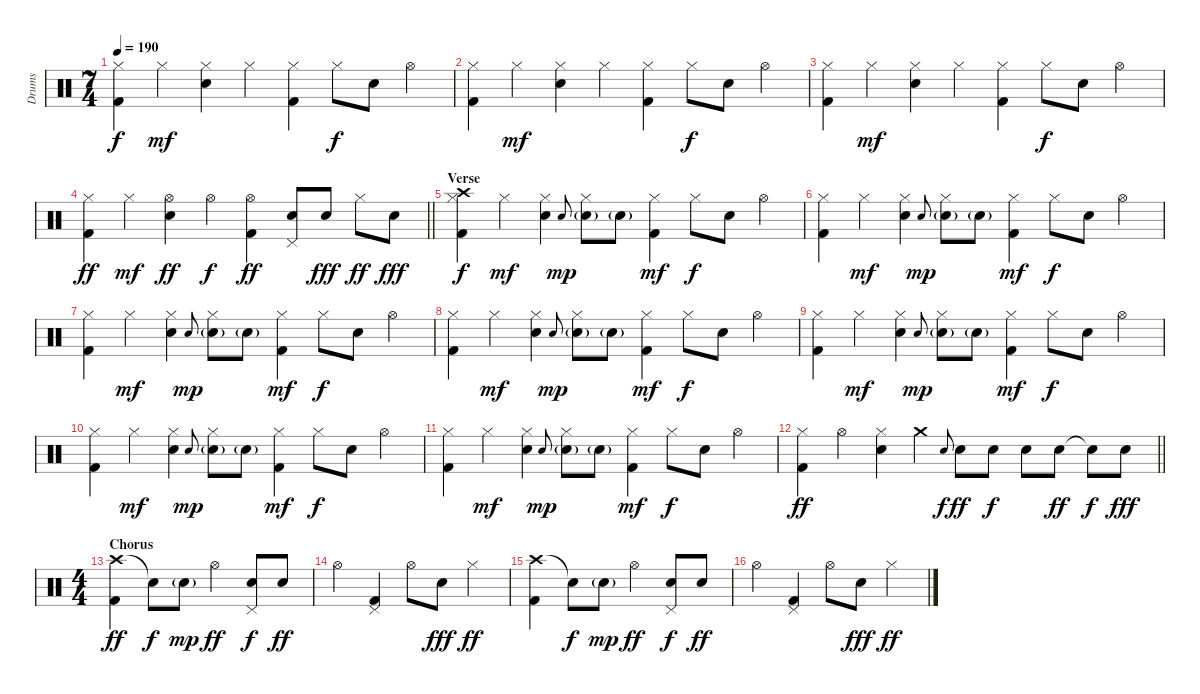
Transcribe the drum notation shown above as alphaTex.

\track ("Drums" "Drums") {instrument percussion}
\staff {score}
\articulation defaults
\ts (7 4)
\tempo 190
\clef neutral
\ks c
("Hi-Hat (closed)" "Kick (hit) 2").4{dy f} "Hi-Hat (closed)".4{dy mf} ("Hi-Hat (closed)" "Electric Snare (hit)").4 "Hi-Hat (closed)".4 ("Hi-Hat (closed)" "Kick (hit) 2").4 "Hi-Hat (closed)".8{dy f} "Electric Snare (hit)".8 "Hi-Hat (open)".4 |
("Hi-Hat (closed)" "Kick (hit) 2").4 "Hi-Hat (closed)".4{dy mf} ("Hi-Hat (closed)" "Electric Snare (hit)").4 "Hi-Hat (closed)".4 ("Hi-Hat (closed)" "Kick (hit) 2").4 "Hi-Hat (closed)".8{dy f} "Electric Snare (hit)".8 "Hi-Hat (open)".4 |
("Hi-Hat (closed)" "Kick (hit) 2").4 "Hi-Hat (closed)".4{dy mf} ("Hi-Hat (closed)" "Electric Snare (hit)").4 "Hi-Hat (closed)".4 ("Hi-Hat (closed)" "Kick (hit) 2").4 "Hi-Hat (closed)".8{dy f} "Electric Snare (hit)".8 "Hi-Hat (open)".4 |
\barLineRight lightlight
("Hi-Hat (closed)" "Kick (hit) 2").4{dy ff} "Hi-Hat (closed)".4{dy mf} ("Hi-Hat (open)" "Electric Snare (hit)").4{dy ff} "Hi-Hat (open)".4{dy f} ("Hi-Hat (open)" "Kick (hit) 2").4{dy ff} ("Pedal Hi-Hat (hit)" "Electric Snare (hit)").8 "Electric Snare (hit)".8{dy fff} "Hi-Hat (closed)".8{dy ff} "Electric Snare (hit)".8{dy fff} |
\section ("" "Verse")
("Crash high (hit)" "Hi-Hat (closed)" "Kick (hit) 2").4{dy f} "Hi-Hat (closed)".4{dy mf} ("Hi-Hat (closed)" "Electric Snare (hit)").4 "Electric Snare (hit)".8{gr onbeat dy mp} ("Hi-Hat (closed)" "Electric Snare (hit)"{g}).8 "Electric Snare (hit)"{g}.8 ("Hi-Hat (closed)" "Kick (hit) 2").4{dy mf} "Hi-Hat (closed)".8{dy f} "Electric Snare (hit)".8 "Hi-Hat (open)".4 |
("Hi-Hat (closed)" "Kick (hit) 2").4 "Hi-Hat (closed)".4{dy mf} ("Hi-Hat (closed)" "Electric Snare (hit)").4 "Electric Snare (hit)".8{gr onbeat dy mp} ("Hi-Hat (closed)" "Electric Snare (hit)"{g}).8 "Electric Snare (hit)"{g}.8 ("Hi-Hat (closed)" "Kick (hit) 2").4{dy mf} "Hi-Hat (closed)".8{dy f} "Electric Snare (hit)".8 "Hi-Hat (open)".4 |
("Hi-Hat (closed)" "Kick (hit) 2").4 "Hi-Hat (closed)".4{dy mf} ("Hi-Hat (closed)" "Electric Snare (hit)").4 "Electric Snare (hit)".8{gr onbeat dy mp} ("Hi-Hat (closed)" "Electric Snare (hit)"{g}).8 "Electric Snare (hit)"{g}.8 ("Hi-Hat (closed)" "Kick (hit) 2").4{dy mf} "Hi-Hat (closed)".8{dy f} "Electric Snare (hit)".8 "Hi-Hat (open)".4 |
("Hi-Hat (closed)" "Kick (hit) 2").4 "Hi-Hat (closed)".4{dy mf} ("Hi-Hat (closed)" "Electric Snare (hit)").4 "Electric Snare (hit)".8{gr onbeat dy mp} ("Hi-Hat (closed)" "Electric Snare (hit)"{g}).8 "Electric Snare (hit)"{g}.8 ("Hi-Hat (closed)" "Kick (hit) 2").4{dy mf} "Hi-Hat (closed)".8{dy f} "Electric Snare (hit)".8 "Hi-Hat (open)".4 |
("Hi-Hat (closed)" "Kick (hit) 2").4 "Hi-Hat (closed)".4{dy mf} ("Hi-Hat (closed)" "Electric Snare (hit)").4 "Electric Snare (hit)".8{gr onbeat dy mp} ("Hi-Hat (closed)" "Electric Snare (hit)"{g}).8 "Electric Snare (hit)"{g}.8 ("Hi-Hat (closed)" "Kick (hit) 2").4{dy mf} "Hi-Hat (closed)".8{dy f} "Electric Snare (hit)".8 "Hi-Hat (open)".4 |
("Hi-Hat (closed)" "Kick (hit) 2").4 "Hi-Hat (closed)".4{dy mf} ("Hi-Hat (closed)" "Electric Snare (hit)").4 "Electric Snare (hit)".8{gr onbeat dy mp} ("Hi-Hat (closed)" "Electric Snare (hit)"{g}).8 "Electric Snare (hit)"{g}.8 ("Hi-Hat (closed)" "Kick (hit) 2").4{dy mf} "Hi-Hat (closed)".8{dy f} "Electric Snare (hit)".8 "Hi-Hat (open)".4 |
("Hi-Hat (closed)" "Kick (hit) 2").4 "Hi-Hat (closed)".4{dy mf} ("Hi-Hat (closed)" "Electric Snare (hit)").4 "Electric Snare (hit)".8{gr onbeat dy mp} ("Hi-Hat (closed)" "Electric Snare (hit)"{g}).8 "Electric Snare (hit)"{g}.8 ("Hi-Hat (closed)" "Kick (hit) 2").4{dy mf} "Hi-Hat (closed)".8{dy f} "Electric Snare (hit)".8 "Hi-Hat (open)".4 |
\barLineRight lightlight
("Hi-Hat (closed)" "Kick (hit) 2").4{dy ff} "Hi-Hat (open)".4 ("Hi-Hat (closed)" "Electric Snare (hit)").4 "Crash medium (hit)".4 "Electric Snare (hit)".8{gr onbeat dy f} "Electric Snare (hit)".8{dy ff} "Electric Snare (hit)".8{dy f} "Electric Snare (hit)".8 "Electric Snare (hit)".8{dy ff} "Snare (hit)"{t}.8{dy f} "Electric Snare (hit)".8{dy fff} |
\ts (4 4)
\section ("" "Chorus")
("Crash high (hit)" "Kick (hit) 2").4{dy ff} "Snare (hit)"{t}.8{dy f} "Electric Snare (hit)"{g}.8{dy mp} "Hi-Hat (open)".4{dy ff} ("Pedal Hi-Hat (hit)" "Electric Snare (hit)").8{dy f} "Electric Snare (hit)".8{dy ff} |
"Hi-Hat (open)".4 ("Pedal Hi-Hat (hit)" "Kick (hit) 2").4 "Hi-Hat (open)".8 "Electric Snare (hit)".8{dy fff} "Hi-Hat (closed)".4{dy ff} |
("Crash high (hit)" "Kick (hit) 2").4 "Snare (hit)"{t}.8{dy f} "Electric Snare (hit)"{g}.8{dy mp} "Hi-Hat (open)".4{dy ff} ("Pedal Hi-Hat (hit)" "Electric Snare (hit)").8{dy f} "Electric Snare (hit)".8{dy ff} |
"Hi-Hat (open)".4 ("Pedal Hi-Hat (hit)" "Kick (hit) 2").4 "Hi-Hat (open)".8 "Electric Snare (hit)".8{dy fff} "Hi-Hat (closed)".4{dy ff}
